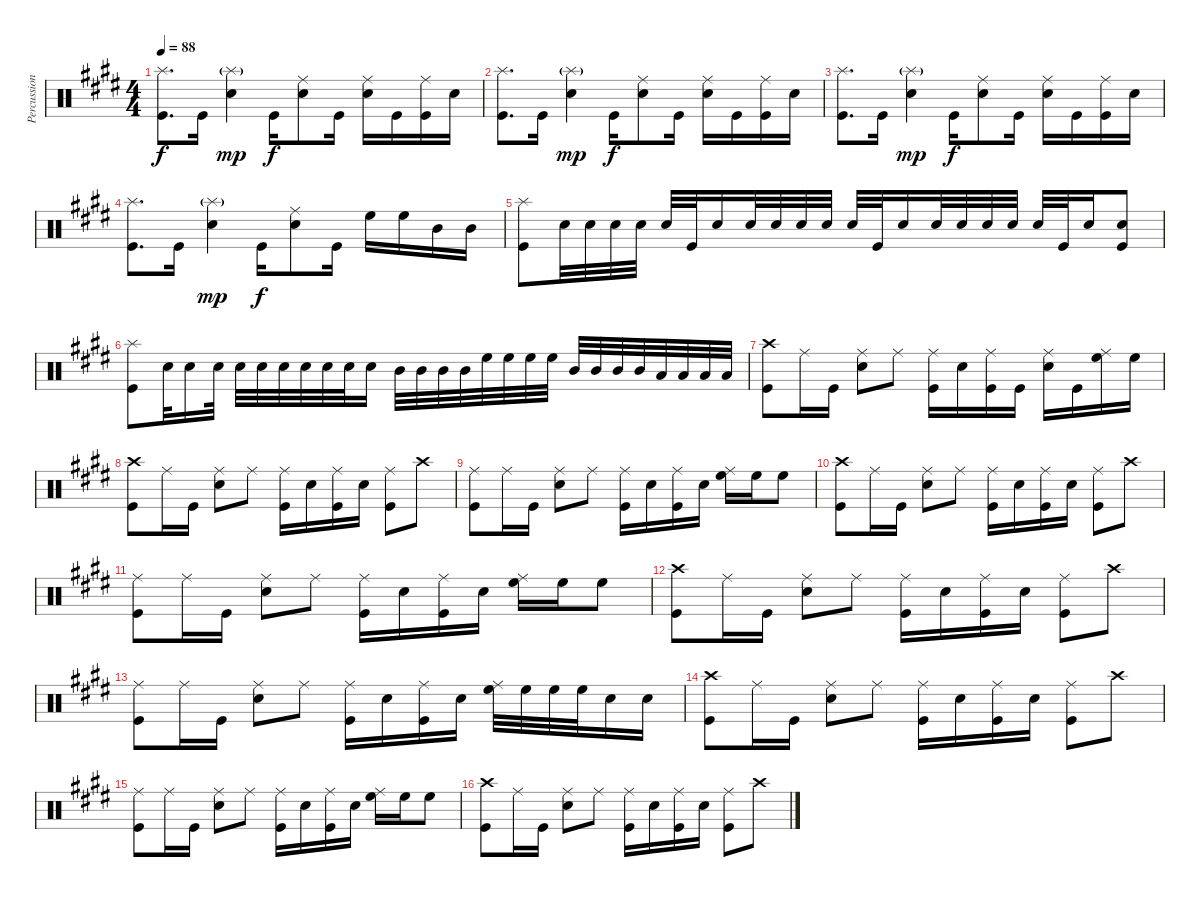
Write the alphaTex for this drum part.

\track ("Percussion" "Percussion") {instrument percussion}
\staff {score}
\articulation defaults
\ts (4 4)
\tempo 88
\clef neutral
\ks e
("Splash (hit)" "Kick (hit)").8{d dy f} "Kick (hit)".16 ("Splash (hit)"{g} "Snare (hit) 2").4{dy mp} "Kick (hit)".16{dy f} ("Ride (middle)" "Snare (hit) 2").8 "Kick (hit)".16 ("Ride (middle)" "Snare (hit) 2").16 "Kick (hit)".16 ("Ride (middle)" "Kick (hit)").16 "Snare (hit) 2".16 |
("Splash (hit)" "Kick (hit)").8{d} "Kick (hit)".16 ("Splash (hit)"{g} "Snare (hit) 2").4{dy mp} "Kick (hit)".16{dy f} ("Ride (middle)" "Snare (hit) 2").8 "Kick (hit)".16 ("Ride (middle)" "Snare (hit) 2").16 "Kick (hit)".16 ("Ride (middle)" "Kick (hit)").16 "Snare (hit) 2".16 |
("Splash (hit)" "Kick (hit)").8{d} "Kick (hit)".16 ("Splash (hit)"{g} "Snare (hit) 2").4{dy mp} "Kick (hit)".16{dy f} ("Ride (middle)" "Snare (hit) 2").8 "Kick (hit)".16 ("Ride (middle)" "Snare (hit) 2").16 "Kick (hit)".16 ("Ride (middle)" "Kick (hit)").16 "Snare (hit) 2".16 |
("Splash (hit)" "Kick (hit)").8{d} "Kick (hit)".16 ("Splash (hit)"{g} "Snare (hit) 2").4{dy mp} "Kick (hit)".16{dy f} ("Ride (middle)" "Snare (hit) 2").8 "Kick (hit)".16 "High Floor Tom (hit)".16 "High Floor Tom (hit)".16 "Mid Tom (hit)".16 "Mid Tom (hit)".16 |
("Splash (hit)" "Kick (hit)").8 "Snare (hit) 2".32 "Snare (hit) 2".32 "Snare (hit) 2".32 "Snare (hit) 2".32 "Snare (hit) 2".32 "Kick (hit)".32 "Snare (hit) 2".16 "Snare (hit) 2".32 "Snare (hit) 2".32 "Snare (hit) 2".32 "Snare (hit) 2".32 "Snare (hit) 2".32 "Kick (hit)".32 "Snare (hit) 2".16 "Snare (hit) 2".32 "Snare (hit) 2".32 "Snare (hit) 2".32 "Snare (hit) 2".32 "Snare (hit) 2".32 "Kick (hit)".32 "Snare (hit) 2".16 ("Snare (hit) 2" "Kick (hit)").8 |
("Splash (hit)" "Kick (hit)").8 "Snare (hit) 2".32 "Snare (hit) 2".16 "Snare (hit) 2".32 "Snare (hit) 2".32 "Snare (hit) 2".32 "Snare (hit) 2".32 "Snare (hit) 2".32 "Snare (hit) 2".32 "Snare (hit) 2".32 "Snare (hit) 2".16 "Mid Tom (hit)".32 "Mid Tom (hit)".32 "Mid Tom (hit)".32 "Mid Tom (hit)".32 "High Floor Tom (hit)".32 "High Floor Tom (hit)".32 "High Floor Tom (hit)".32 "High Floor Tom (hit)".32 "Mid Tom (hit)".32 "Mid Tom (hit)".32 "Mid Tom (hit)".32 "Mid Tom (hit)".32 "Low Tom (hit)".32 "Low Tom (hit)".32 "Low Tom (hit)".32 "Low Tom (hit)".32 |
("Crash high (hit)" "Kick (hit)").8 "Ride (middle)".16 "Kick (hit)".16 ("Ride (middle)" "Snare (hit) 2").8 "Ride (middle)".8 ("Ride (middle)" "Kick (hit)").16 "Snare (hit) 2".16 ("Ride (middle)" "Kick (hit)").16 "Kick (hit)".16 ("Ride (middle)" "Snare (hit) 2").16 "Kick (hit)".16 ("Ride (middle)" "High Floor Tom (hit)").16 "High Floor Tom (hit)".16 |
("Crash high (hit)" "Kick (hit)").8 "Ride (middle)".16 "Kick (hit)".16 ("Ride (middle)" "Snare (hit) 2").8 "Ride (middle)".8 ("Ride (middle)" "Kick (hit)").16 "Snare (hit) 2".16 ("Ride (middle)" "Kick (hit)").16 "Snare (hit) 2".16 ("Ride (middle)" "Kick (hit)").8 "Crash high (hit)".8 |
("Ride (middle)" "Kick (hit)").8 "Ride (middle)".16 "Kick (hit)".16 ("Ride (middle)" "Snare (hit) 2").8 "Ride (middle)".8 ("Ride (middle)" "Kick (hit)").16 "Snare (hit) 2".16 ("Ride (middle)" "Kick (hit)").16 "Snare (hit) 2".16 ("Ride (middle)" "High Floor Tom (hit)").16 "High Floor Tom (hit)".16 "High Floor Tom (hit)".8 |
("Crash high (hit)" "Kick (hit)").8 "Ride (middle)".16 "Kick (hit)".16 ("Ride (middle)" "Snare (hit) 2").8 "Ride (middle)".8 ("Ride (middle)" "Kick (hit)").16 "Snare (hit) 2".16 ("Ride (middle)" "Kick (hit)").16 "Snare (hit) 2".16 ("Ride (middle)" "Kick (hit)").8 "Crash high (hit)".8 |
("Ride (middle)" "Kick (hit)").8 "Ride (middle)".16 "Kick (hit)".16 ("Ride (middle)" "Snare (hit) 2").8 "Ride (middle)".8 ("Ride (middle)" "Kick (hit)").16 "Snare (hit) 2".16 ("Ride (middle)" "Kick (hit)").16 "Snare (hit) 2".16 ("Ride (middle)" "High Floor Tom (hit)").16 "High Floor Tom (hit)".16 "High Floor Tom (hit)".8 |
("Crash high (hit)" "Kick (hit)").8 "Ride (middle)".16 "Kick (hit)".16 ("Ride (middle)" "Snare (hit) 2").8 "Ride (middle)".8 ("Ride (middle)" "Kick (hit)").16 "Snare (hit) 2".16 ("Ride (middle)" "Kick (hit)").16 "Snare (hit) 2".16 ("Ride (middle)" "Kick (hit)").8 "Crash high (hit)".8 |
("Ride (middle)" "Kick (hit)").8 "Ride (middle)".16 "Kick (hit)".16 ("Ride (middle)" "Snare (hit) 2").8 "Ride (middle)".8 ("Ride (middle)" "Kick (hit)").16 "Snare (hit) 2".16 ("Ride (middle)" "Kick (hit)").16 "Snare (hit) 2".16 ("Ride (middle)" "High Floor Tom (hit)").32 "High Floor Tom (hit)".32 "High Floor Tom (hit)".32 "High Floor Tom (hit)".32 "Snare (hit) 2".16 "Snare (hit) 2".16 |
("Crash high (hit)" "Kick (hit)").8 "Ride (middle)".16 "Kick (hit)".16 ("Ride (middle)" "Snare (hit) 2").8 "Ride (middle)".8 ("Ride (middle)" "Kick (hit)").16 "Snare (hit) 2".16 ("Ride (middle)" "Kick (hit)").16 "Snare (hit) 2".16 ("Ride (middle)" "Kick (hit)").8 "Crash high (hit)".8 |
("Ride (middle)" "Kick (hit)").8 "Ride (middle)".16 "Kick (hit)".16 ("Ride (middle)" "Snare (hit) 2").8 "Ride (middle)".8 ("Ride (middle)" "Kick (hit)").16 "Snare (hit) 2".16 ("Ride (middle)" "Kick (hit)").16 "Snare (hit) 2".16 ("Ride (middle)" "High Floor Tom (hit)").16 "High Floor Tom (hit)".16 "High Floor Tom (hit)".8 |
("Crash high (hit)" "Kick (hit)").8 "Ride (middle)".16 "Kick (hit)".16 ("Ride (middle)" "Snare (hit) 2").8 "Ride (middle)".8 ("Ride (middle)" "Kick (hit)").16 "Snare (hit) 2".16 ("Ride (middle)" "Kick (hit)").16 "Snare (hit) 2".16 ("Ride (middle)" "Kick (hit)").8 "Crash high (hit)".8
